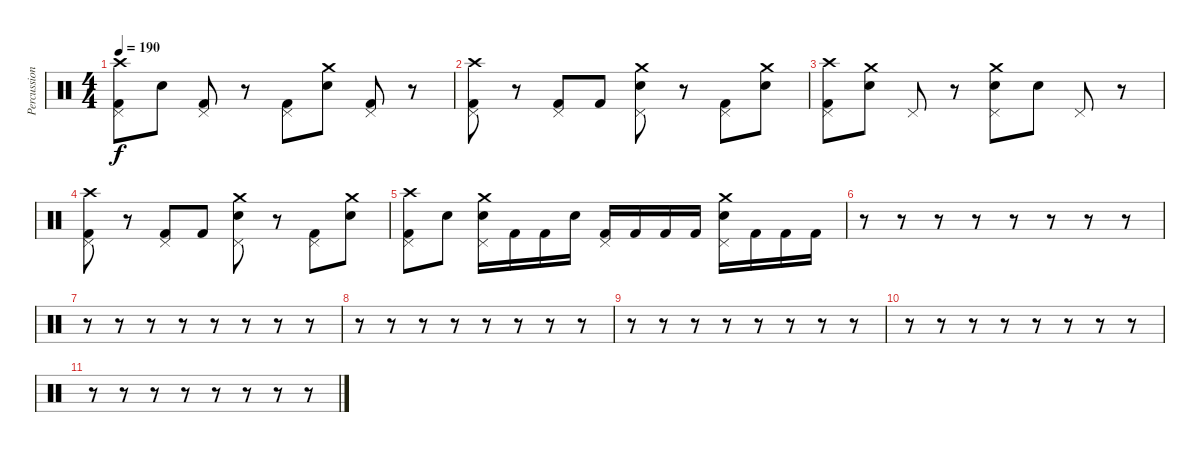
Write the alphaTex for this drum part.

\track ("Percussion" "Percussion") {instrument percussion}
\staff {score}
\articulation defaults
\ts (4 4)
\tempo 190
\clef neutral
\ks c
("Crash high (hit)" "Pedal Hi-Hat (hit)" "Kick (hit) 2").8{dy f} "Snare (hit) 2".8 ("Pedal Hi-Hat (hit)" "Kick (hit) 2").8 r.8 ("Pedal Hi-Hat (hit)" "Kick (hit) 2").8 ("Crash medium (hit)" "Snare (hit) 2").8 ("Pedal Hi-Hat (hit)" "Kick (hit) 2").8 r.8 |
("Crash high (hit)" "Pedal Hi-Hat (hit)" "Kick (hit) 2").8 r.8 ("Pedal Hi-Hat (hit)" "Kick (hit) 2").8 "Kick (hit) 2".8 ("Crash medium (hit)" "Pedal Hi-Hat (hit)" "Snare (hit) 2").8 r.8 ("Pedal Hi-Hat (hit)" "Kick (hit) 2").8 ("Crash medium (hit)" "Snare (hit) 2").8 |
("Crash high (hit)" "Pedal Hi-Hat (hit)" "Kick (hit) 2").8 ("Crash medium (hit)" "Snare (hit) 2").8 "Pedal Hi-Hat (hit)".8 r.8 ("Crash medium (hit)" "Pedal Hi-Hat (hit)" "Snare (hit) 2").8 "Snare (hit) 2".8 "Pedal Hi-Hat (hit)".8 r.8 |
("Crash high (hit)" "Pedal Hi-Hat (hit)" "Kick (hit) 2").8 r.8 ("Pedal Hi-Hat (hit)" "Kick (hit) 2").8 "Kick (hit) 2".8 ("Crash medium (hit)" "Pedal Hi-Hat (hit)" "Snare (hit) 2").8 r.8 ("Pedal Hi-Hat (hit)" "Kick (hit) 2").8 ("Crash medium (hit)" "Snare (hit) 2").8 |
("Crash high (hit)" "Pedal Hi-Hat (hit)" "Kick (hit) 2").8 "Snare (hit) 2".8 ("Crash medium (hit)" "Pedal Hi-Hat (hit)" "Snare (hit) 2").16 "Kick (hit) 2".16 "Kick (hit) 2".16 "Snare (hit) 2".16 ("Pedal Hi-Hat (hit)" "Kick (hit) 2").16 "Kick (hit) 2".16 "Kick (hit) 2".16 "Kick (hit) 2".16 ("Crash medium (hit)" "Pedal Hi-Hat (hit)" "Snare (hit) 2").16 "Kick (hit) 2".16 "Kick (hit) 2".16 "Kick (hit) 2".16 |
r.8 r.8 r.8 r.8 r.8 r.8 r.8 r.8 |
r.8 r.8 r.8 r.8 r.8 r.8 r.8 r.8 |
r.8 r.8 r.8 r.8 r.8 r.8 r.8 r.8 |
r.8 r.8 r.8 r.8 r.8 r.8 r.8 r.8 |
r.8 r.8 r.8 r.8 r.8 r.8 r.8 r.8 |
r.8 r.8 r.8 r.8 r.8 r.8 r.8 r.8
